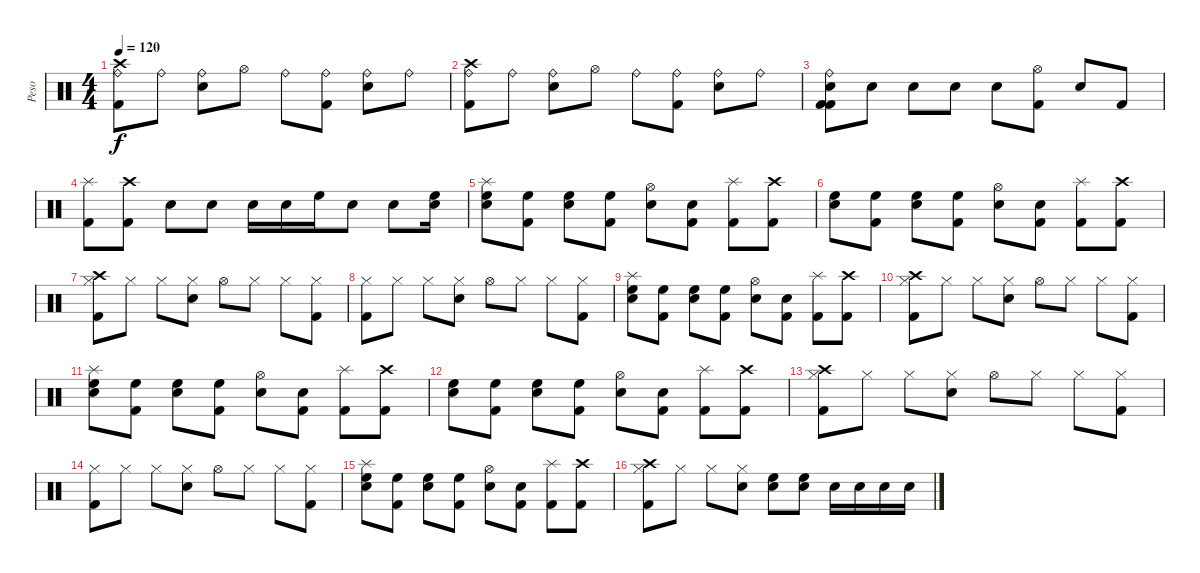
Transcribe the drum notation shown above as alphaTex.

\track ("Peso" "Peso") {instrument percussion}
\staff {score}
\articulation defaults
\ts (4 4)
\tempo 120
\clef neutral
\ks c
("Crash high (hit)" "Ride (bell)" "Kick (hit) 2").8{dy f} "Ride (bell)".8 ("Ride (bell)" "Snare (hit) 2").8 "Hi-Hat (open)".8 "Ride (bell)".8 ("Ride (bell)" "Kick (hit) 2").8 ("Ride (bell)" "Snare (hit) 2").8 "Ride (bell)".8 |
("Crash high (hit)" "Ride (bell)" "Kick (hit) 2").8 "Ride (bell)".8 ("Ride (bell)" "Snare (hit) 2").8 "Hi-Hat (open)".8 "Ride (bell)".8 ("Ride (bell)" "Kick (hit) 2").8 ("Ride (bell)" "Snare (hit) 2").8 "Ride (bell)".8 |
("Ride (bell)" "Snare (hit) 2" "Kick (hit) 2" "Kick (hit) 2").8 "Snare (hit)"{x}.8 "Snare (hit)"{x}.8 "Snare (hit)"{x}.8 "Snare (hit)"{x}.8 ("Hi-Hat (open)" "Kick (hit) 2").8 "Snare (hit) 2".8 "Kick (hit) 2".8 |
("Splash (hit)" "Kick (hit) 2").8 ("Crash high (hit)" "Kick (hit) 2").8 "Snare (hit) 2".8 "Snare (hit) 2".8 "Snare (hit) 2".16 "Snare (hit) 2".16 "High Floor Tom (hit)".16 "Snare (hit) 2".8 "Snare (hit) 2".8 ("High Floor Tom (hit)" "Snare (hit) 2").16 |
("Splash (hit)" "Snare (hit) 2" "High Floor Tom (hit)").8 ("High Floor Tom (hit)" "Kick (hit) 2").8 ("Snare (hit) 2" "High Floor Tom (hit)").8 ("High Floor Tom (hit)" "Kick (hit) 2").8 ("Hi-Hat (open)" "Snare (hit) 2").8 ("Snare (hit) 2" "Kick (hit) 2").8 ("Splash (hit)" "Kick (hit) 2").8 ("Crash high (hit)" "Kick (hit) 2").8 |
("Snare (hit) 2" "High Floor Tom (hit)").8 ("High Floor Tom (hit)" "Kick (hit) 2").8 ("Snare (hit) 2" "High Floor Tom (hit)").8 ("High Floor Tom (hit)" "Kick (hit) 2").8 ("Hi-Hat (open)" "Snare (hit) 2").8 ("Snare (hit) 2" "Kick (hit) 2").8 ("Splash (hit)" "Kick (hit) 2").8 ("Crash high (hit)" "Kick (hit) 2").8 |
("Crash high (hit)" "Hi-Hat (closed)" "Kick (hit) 2").8 "Hi-Hat (closed)".8 "Hi-Hat (closed)".8 ("Hi-Hat (closed)" "Snare (hit) 2").8 "Hi-Hat (open)".8 "Hi-Hat (closed)".8 "Hi-Hat (closed)".8 ("Hi-Hat (closed)" "Kick (hit) 2").8 |
("Hi-Hat (closed)" "Kick (hit) 2").8 "Hi-Hat (closed)".8 "Hi-Hat (closed)".8 ("Hi-Hat (closed)" "Snare (hit) 2").8 "Hi-Hat (open)".8 "Hi-Hat (closed)".8 "Hi-Hat (closed)".8 ("Hi-Hat (closed)" "Kick (hit) 2").8 |
("Splash (hit)" "Snare (hit) 2" "High Floor Tom (hit)").8 ("High Floor Tom (hit)" "Kick (hit) 2").8 ("Snare (hit) 2" "High Floor Tom (hit)").8 ("High Floor Tom (hit)" "Kick (hit) 2").8 ("Hi-Hat (open)" "Snare (hit) 2").8 ("Snare (hit) 2" "Kick (hit) 2").8 ("Splash (hit)" "Kick (hit) 2").8 ("Crash high (hit)" "Kick (hit) 2").8 |
("Crash high (hit)" "Hi-Hat (closed)" "Kick (hit) 2").8 "Hi-Hat (closed)".8 "Hi-Hat (closed)".8 ("Hi-Hat (closed)" "Snare (hit) 2").8 "Hi-Hat (open)".8 "Hi-Hat (closed)".8 "Hi-Hat (closed)".8 ("Hi-Hat (closed)" "Kick (hit) 2").8 |
("Splash (hit)" "Snare (hit) 2" "High Floor Tom (hit)").8 ("High Floor Tom (hit)" "Kick (hit) 2").8 ("Snare (hit) 2" "High Floor Tom (hit)").8 ("High Floor Tom (hit)" "Kick (hit) 2").8 ("Hi-Hat (open)" "Snare (hit) 2").8 ("Snare (hit) 2" "Kick (hit) 2").8 ("Splash (hit)" "Kick (hit) 2").8 ("Crash high (hit)" "Kick (hit) 2").8 |
("Snare (hit) 2" "High Floor Tom (hit)").8 ("High Floor Tom (hit)" "Kick (hit) 2").8 ("Snare (hit) 2" "High Floor Tom (hit)").8 ("High Floor Tom (hit)" "Kick (hit) 2").8 ("Hi-Hat (open)" "Snare (hit) 2").8 ("Snare (hit) 2" "Kick (hit) 2").8 ("Splash (hit)" "Kick (hit) 2").8 ("Crash high (hit)" "Kick (hit) 2").8 |
("Crash high (hit)" "Hi-Hat (closed)" "Kick (hit) 2").8 "Hi-Hat (closed)".8 "Hi-Hat (closed)".8 ("Hi-Hat (closed)" "Snare (hit) 2").8 "Hi-Hat (open)".8 "Hi-Hat (closed)".8 "Hi-Hat (closed)".8 ("Hi-Hat (closed)" "Kick (hit) 2").8 |
("Hi-Hat (closed)" "Kick (hit) 2").8 "Hi-Hat (closed)".8 "Hi-Hat (closed)".8 ("Hi-Hat (closed)" "Snare (hit) 2").8 "Hi-Hat (open)".8 "Hi-Hat (closed)".8 "Hi-Hat (closed)".8 ("Hi-Hat (closed)" "Kick (hit) 2").8 |
("Splash (hit)" "Snare (hit) 2" "High Floor Tom (hit)").8 ("High Floor Tom (hit)" "Kick (hit) 2").8 ("Snare (hit) 2" "High Floor Tom (hit)").8 ("High Floor Tom (hit)" "Kick (hit) 2").8 ("Hi-Hat (open)" "Snare (hit) 2").8 ("Snare (hit) 2" "Kick (hit) 2").8 ("Splash (hit)" "Kick (hit) 2").8 ("Crash high (hit)" "Kick (hit) 2").8 |
("Crash high (hit)" "Hi-Hat (closed)" "Kick (hit) 2").8 "Hi-Hat (closed)".8 "Hi-Hat (closed)".8 ("Hi-Hat (closed)" "Snare (hit) 2").8 ("High Floor Tom (hit)" "Snare (hit) 2").8 ("High Floor Tom (hit)" "Snare (hit) 2").8 "Snare (hit) 2".16 "Snare (hit) 2".16 "Snare (hit) 2".16 "Snare (hit) 2".16
